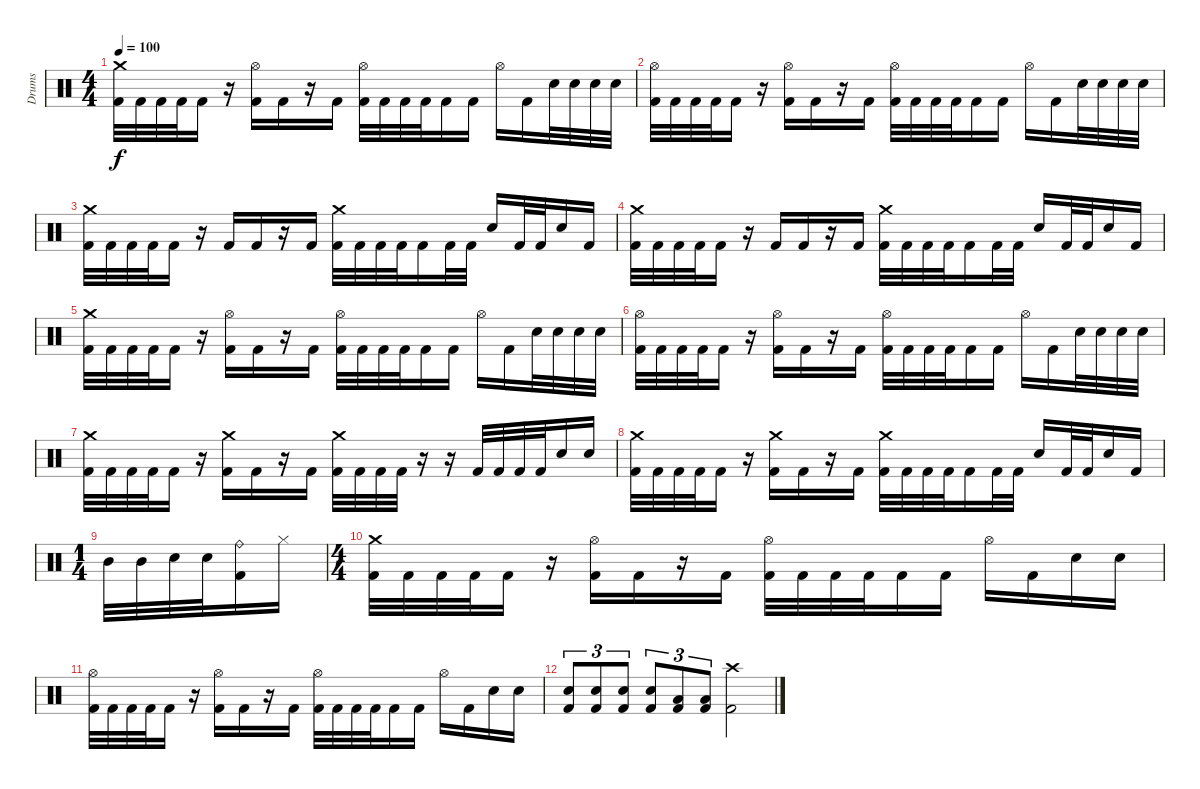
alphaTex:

\track ("Drums" "Drums") {instrument percussion}
\staff {score}
\articulation defaults
\ts (4 4)
\tempo 100
\clef neutral
\ks c
("Kick (hit) 2" "Crash medium (hit)").32{dy f} "Kick (hit) 2".32 "Kick (hit) 2".32 "Kick (hit) 2".32 "Kick (hit) 2".16 r.16 ("Kick (hit) 2" "Hi-Hat (open)").16 "Kick (hit) 2".16 r.16 "Kick (hit) 2".16 ("Kick (hit) 2" "Hi-Hat (open)").32 "Kick (hit) 2".32 "Kick (hit) 2".32 "Kick (hit) 2".32 "Kick (hit) 2".16 "Kick (hit) 2".16 "Hi-Hat (open)".16 "Kick (hit) 2".16 "Electric Snare (hit)".32 "Electric Snare (hit)".32 "Electric Snare (hit)".32 "Electric Snare (hit)".32 |
("Kick (hit) 2" "Hi-Hat (open)").32 "Kick (hit) 2".32 "Kick (hit) 2".32 "Kick (hit) 2".32 "Kick (hit) 2".16 r.16 ("Kick (hit) 2" "Hi-Hat (open)").16 "Kick (hit) 2".16 r.16 "Kick (hit) 2".16 ("Kick (hit) 2" "Hi-Hat (open)").32 "Kick (hit) 2".32 "Kick (hit) 2".32 "Kick (hit) 2".32 "Kick (hit) 2".16 "Kick (hit) 2".16 "Hi-Hat (open)".16 "Kick (hit) 2".16 "Electric Snare (hit)".32 "Electric Snare (hit)".32 "Electric Snare (hit)".32 "Electric Snare (hit)".32 |
("Kick (hit) 2" "Crash medium (hit)").32 "Kick (hit) 2".32 "Kick (hit) 2".32 "Kick (hit) 2".32 "Kick (hit) 2".16 r.16 "Kick (hit) 2".16 "Kick (hit) 2".16 r.16 "Kick (hit) 2".16 ("Kick (hit) 2" "Crash medium (hit)").32 "Kick (hit) 2".32 "Kick (hit) 2".32 "Kick (hit) 2".32 "Kick (hit) 2".16 "Kick (hit) 2".32 "Kick (hit) 2".32 "Electric Snare (hit)".16 "Kick (hit) 2".32 "Kick (hit) 2".32 "Electric Snare (hit)".16 "Kick (hit) 2".16 |
("Kick (hit) 2" "Crash medium (hit)").32 "Kick (hit) 2".32 "Kick (hit) 2".32 "Kick (hit) 2".32 "Kick (hit) 2".16 r.16 "Kick (hit) 2".16 "Kick (hit) 2".16 r.16 "Kick (hit) 2".16 ("Kick (hit) 2" "Crash medium (hit)").32 "Kick (hit) 2".32 "Kick (hit) 2".32 "Kick (hit) 2".32 "Kick (hit) 2".16 "Kick (hit) 2".32 "Kick (hit) 2".32 "Electric Snare (hit)".16 "Kick (hit) 2".32 "Kick (hit) 2".32 "Electric Snare (hit)".16 "Kick (hit) 2".16 |
("Kick (hit) 2" "Crash medium (hit)").32 "Kick (hit) 2".32 "Kick (hit) 2".32 "Kick (hit) 2".32 "Kick (hit) 2".16 r.16 ("Kick (hit) 2" "Hi-Hat (open)").16 "Kick (hit) 2".16 r.16 "Kick (hit) 2".16 ("Kick (hit) 2" "Hi-Hat (open)").32 "Kick (hit) 2".32 "Kick (hit) 2".32 "Kick (hit) 2".32 "Kick (hit) 2".16 "Kick (hit) 2".16 "Hi-Hat (open)".16 "Kick (hit) 2".16 "Electric Snare (hit)".32 "Electric Snare (hit)".32 "Electric Snare (hit)".32 "Electric Snare (hit)".32 |
("Kick (hit) 2" "Hi-Hat (open)").32 "Kick (hit) 2".32 "Kick (hit) 2".32 "Kick (hit) 2".32 "Kick (hit) 2".16 r.16 ("Kick (hit) 2" "Hi-Hat (open)").16 "Kick (hit) 2".16 r.16 "Kick (hit) 2".16 ("Kick (hit) 2" "Hi-Hat (open)").32 "Kick (hit) 2".32 "Kick (hit) 2".32 "Kick (hit) 2".32 "Kick (hit) 2".16 "Kick (hit) 2".16 "Hi-Hat (open)".16 "Kick (hit) 2".16 "Electric Snare (hit)".32 "Electric Snare (hit)".32 "Electric Snare (hit)".32 "Electric Snare (hit)".32 |
("Kick (hit) 2" "Crash medium (hit)").32 "Kick (hit) 2".32 "Kick (hit) 2".32 "Kick (hit) 2".32 "Kick (hit) 2".16 r.16 ("Kick (hit) 2" "Crash medium (hit)").16 "Kick (hit) 2".16 r.16 "Kick (hit) 2".16 ("Kick (hit) 2" "Crash medium (hit)").32 "Kick (hit) 2".32 "Kick (hit) 2".32 "Kick (hit) 2".32 r.16 r.16 "Kick (hit) 2".32 "Kick (hit) 2".32 "Kick (hit) 2".32 "Kick (hit) 2".32 "Electric Snare (hit)".16 "Electric Snare (hit)".16 |
("Kick (hit) 2" "Crash medium (hit)").32 "Kick (hit) 2".32 "Kick (hit) 2".32 "Kick (hit) 2".32 "Kick (hit) 2".16 r.16 ("Kick (hit) 2" "Crash medium (hit)").16 "Kick (hit) 2".16 r.16 "Kick (hit) 2".16 ("Kick (hit) 2" "Crash medium (hit)").32 "Kick (hit) 2".32 "Kick (hit) 2".32 "Kick (hit) 2".32 "Kick (hit) 2".16 "Kick (hit) 2".32 "Kick (hit) 2".32 "Electric Snare (hit)".16 "Kick (hit) 2".32 "Kick (hit) 2".32 "Electric Snare (hit)".16 "Kick (hit) 2".16 |
\ts (1 4)
"Mid Tom (hit)".32 "Mid Tom (hit)".32 "Electric Snare (hit)".32 "Electric Snare (hit)".32 ("Ride (bell)" "Kick (hit) 2").16 "Hi-Hat (closed)".16 |
\ts (4 4)
("Kick (hit) 2" "Crash medium (hit)").32 "Kick (hit) 2".32 "Kick (hit) 2".32 "Kick (hit) 2".32 "Kick (hit) 2".16 r.16 ("Kick (hit) 2" "Hi-Hat (open)").16 "Kick (hit) 2".16 r.16 "Kick (hit) 2".16 ("Kick (hit) 2" "Hi-Hat (open)").32 "Kick (hit) 2".32 "Kick (hit) 2".32 "Kick (hit) 2".32 "Kick (hit) 2".16 "Kick (hit) 2".16 "Hi-Hat (open)".16 "Kick (hit) 2".16 "Electric Snare (hit)".16 "Electric Snare (hit)".16 |
("Kick (hit) 2" "Hi-Hat (open)").32 "Kick (hit) 2".32 "Kick (hit) 2".32 "Kick (hit) 2".32 "Kick (hit) 2".16 r.16 ("Kick (hit) 2" "Hi-Hat (open)").16 "Kick (hit) 2".16 r.16 "Kick (hit) 2".16 ("Kick (hit) 2" "Hi-Hat (open)").32 "Kick (hit) 2".32 "Kick (hit) 2".32 "Kick (hit) 2".32 "Kick (hit) 2".16 "Kick (hit) 2".16 "Hi-Hat (open)".16 "Kick (hit) 2".16 "Electric Snare (hit)".16 "Electric Snare (hit)".16 |
("Kick (hit) 2" "Electric Snare (hit)").8{tu (3 2)} ("Kick (hit) 2" "Electric Snare (hit)").8{tu (3 2)} ("Kick (hit) 2" "Electric Snare (hit)").8{tu (3 2)} ("Kick (hit) 2" "Electric Snare (hit)").8{tu (3 2)} ("Kick (hit) 2" "Low Tom (hit)").8{tu (3 2)} ("Kick (hit) 2" "Low Tom (hit)").8{tu (3 2)} ("Kick (hit) 2" "Crash high (hit)").2
